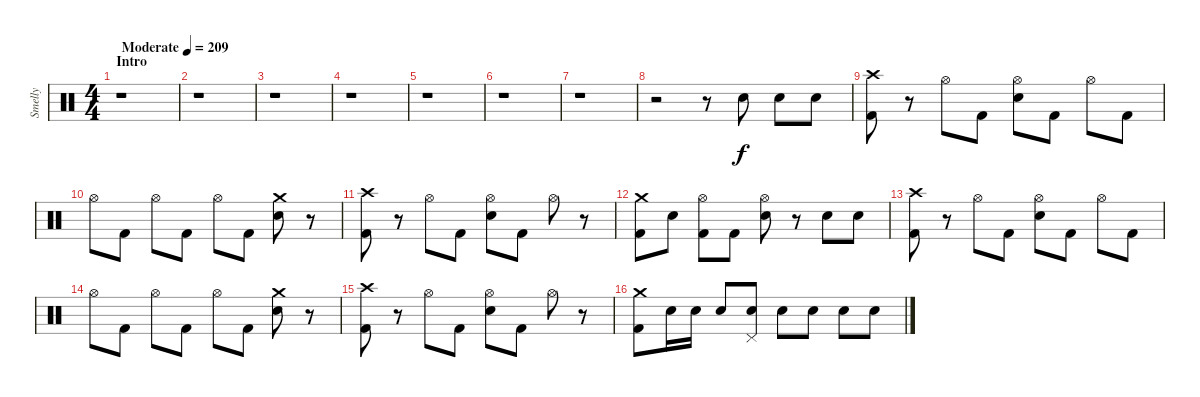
\track ("Smelly" "Smelly") {instrument percussion}
\staff {score}
\articulation defaults
\ts (4 4)
\section ("" "Intro")
\tempo (209 "Moderate")
\clef neutral
\ks c
r.1{dy f} |
r.1 |
r.1 |
r.1 |
r.1 |
r.1 |
r.1 |
r.2 r.8 "Electric Snare (hit)".8 "Electric Snare (hit)".8 "Electric Snare (hit)".8 |
("Crash high (hit)" "Kick (hit) 2").8 r.8 "Hi-Hat (open)".8 "Kick (hit) 2".8 ("Hi-Hat (open)" "Electric Snare (hit)").8 "Kick (hit) 2".8 "Hi-Hat (open)".8 "Kick (hit) 2".8 |
"Hi-Hat (open)".8 "Kick (hit) 2".8 "Hi-Hat (open)".8 "Kick (hit) 2".8 "Hi-Hat (open)".8 "Kick (hit) 2".8 ("Crash medium (hit)" "Electric Snare (hit)").8 r.8 |
("Crash high (hit)" "Kick (hit) 2").8 r.8 "Hi-Hat (open)".8 "Kick (hit) 2".8 ("Hi-Hat (open)" "Electric Snare (hit)").8 "Kick (hit) 2".8 "Hi-Hat (open)".8 r.8 |
("Crash medium (hit)" "Kick (hit) 2").8 "Electric Snare (hit)".8 ("Hi-Hat (open)" "Kick (hit) 2").8 "Kick (hit) 2".8 ("Hi-Hat (open)" "Electric Snare (hit)").8 r.8 "Electric Snare (hit)".8 "Electric Snare (hit)".8 |
("Crash high (hit)" "Kick (hit) 2").8 r.8 "Hi-Hat (open)".8 "Kick (hit) 2".8 ("Hi-Hat (open)" "Electric Snare (hit)").8 "Kick (hit) 2".8 "Hi-Hat (open)".8 "Kick (hit) 2".8 |
"Hi-Hat (open)".8 "Kick (hit) 2".8 "Hi-Hat (open)".8 "Kick (hit) 2".8 "Hi-Hat (open)".8 "Kick (hit) 2".8 ("Crash medium (hit)" "Electric Snare (hit)").8 r.8 |
("Crash high (hit)" "Kick (hit) 2").8 r.8 "Hi-Hat (open)".8 "Kick (hit) 2".8 ("Hi-Hat (open)" "Electric Snare (hit)").8 "Kick (hit) 2".8 "Hi-Hat (open)".8 r.8 |
("Crash medium (hit)" "Kick (hit) 2").8 "Electric Snare (hit)".16 "Electric Snare (hit)".16 "Electric Snare (hit)".8 ("Pedal Hi-Hat (hit)" "Electric Snare (hit)").8 "Electric Snare (hit)".8 "Electric Snare (hit)".8 "Electric Snare (hit)".8 "Electric Snare (hit)".8
